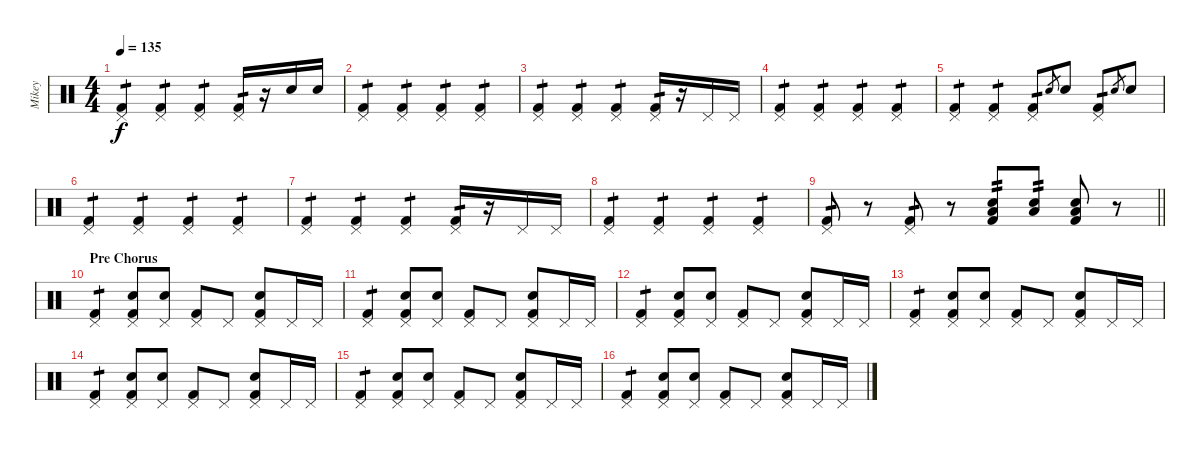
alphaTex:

\track ("Mikey" "Mikey") {instrument percussion}
\staff {score}
\articulation defaults
\ts (4 4)
\tempo 135
\clef neutral
\ks c
("Pedal Hi-Hat (hit)" "Kick (hit) 2").4{tp 1 dy f} ("Pedal Hi-Hat (hit)" "Kick (hit) 2").4{tp 1} ("Pedal Hi-Hat (hit)" "Kick (hit) 2").4{tp 1} ("Pedal Hi-Hat (hit)" "Kick (hit) 2").16{tp 1} r.16 "Snare (hit) 2".16 "Snare (hit) 2".16 |
("Pedal Hi-Hat (hit)" "Kick (hit) 2").4{tp 1} ("Pedal Hi-Hat (hit)" "Kick (hit) 2").4{tp 1} ("Pedal Hi-Hat (hit)" "Kick (hit) 2").4{tp 1} ("Pedal Hi-Hat (hit)" "Kick (hit) 2").4{tp 1} |
("Pedal Hi-Hat (hit)" "Kick (hit) 2").4{tp 1} ("Pedal Hi-Hat (hit)" "Kick (hit) 2").4{tp 1} ("Pedal Hi-Hat (hit)" "Kick (hit) 2").4{tp 1} ("Pedal Hi-Hat (hit)" "Kick (hit) 2").16{tp 1} r.16 "Pedal Hi-Hat (hit)".16 "Pedal Hi-Hat (hit)".16 |
("Pedal Hi-Hat (hit)" "Kick (hit) 2").4{tp 1} ("Pedal Hi-Hat (hit)" "Kick (hit) 2").4{tp 1} ("Pedal Hi-Hat (hit)" "Kick (hit) 2").4{tp 1} ("Pedal Hi-Hat (hit)" "Kick (hit) 2").4{tp 1} |
("Pedal Hi-Hat (hit)" "Kick (hit) 2").4{tp 1} ("Pedal Hi-Hat (hit)" "Kick (hit) 2").4{tp 1} ("Pedal Hi-Hat (hit)" "Kick (hit) 2").8{tp 1} "Snare (hit) 2".8{gr} "Snare (hit)".8 ("Pedal Hi-Hat (hit)" "Kick (hit) 2").8{tp 1} "Snare (hit) 2".8{gr} "Snare (hit) 2".8 |
("Pedal Hi-Hat (hit)" "Kick (hit) 2").4{tp 1} ("Pedal Hi-Hat (hit)" "Kick (hit) 2").4{tp 1} ("Pedal Hi-Hat (hit)" "Kick (hit) 2").4{tp 1} ("Pedal Hi-Hat (hit)" "Kick (hit) 2").4{tp 1} |
("Pedal Hi-Hat (hit)" "Kick (hit) 2").4{tp 1} ("Pedal Hi-Hat (hit)" "Kick (hit) 2").4{tp 1} ("Pedal Hi-Hat (hit)" "Kick (hit) 2").4{tp 1} ("Pedal Hi-Hat (hit)" "Kick (hit) 2").16{tp 1} r.16 "Pedal Hi-Hat (hit)".16 "Pedal Hi-Hat (hit)".16 |
("Pedal Hi-Hat (hit)" "Kick (hit) 2").4{tp 1} ("Pedal Hi-Hat (hit)" "Kick (hit) 2").4{tp 1} ("Pedal Hi-Hat (hit)" "Kick (hit) 2").4{tp 1} ("Pedal Hi-Hat (hit)" "Kick (hit) 2").4{tp 1} |
\barLineRight lightlight
("Pedal Hi-Hat (hit)" "Kick (hit) 2").8{tp 1} r.8 ("Pedal Hi-Hat (hit)" "Kick (hit) 2").8{tp 1} r.8 ("Low Floor Tom (hit)" "Snare (hit) 2" "Kick (hit) 2").8{tp 2} ("Low Floor Tom (hit)" "Snare (hit) 2").8{tp 2} ("Low Floor Tom (hit)" "Snare (hit) 2" "Kick (hit) 2").8 r.8 |
\section ("" "Pre Chorus")
("Pedal Hi-Hat (hit)" "Kick (hit) 2").4{tp 1} ("Pedal Hi-Hat (hit)" "Snare (hit) 2" "Kick (hit) 2").8 ("Pedal Hi-Hat (hit)" "Snare (hit) 2").8 ("Pedal Hi-Hat (hit)" "Kick (hit) 2").8 "Pedal Hi-Hat (hit)".8 ("Pedal Hi-Hat (hit)" "Snare (hit) 2" "Kick (hit) 2").8 "Pedal Hi-Hat (hit)".16 "Pedal Hi-Hat (hit)".16 |
("Pedal Hi-Hat (hit)" "Kick (hit) 2").4{tp 1} ("Pedal Hi-Hat (hit)" "Snare (hit) 2" "Kick (hit) 2").8 ("Pedal Hi-Hat (hit)" "Snare (hit) 2").8 ("Pedal Hi-Hat (hit)" "Kick (hit) 2").8 "Pedal Hi-Hat (hit)".8 ("Pedal Hi-Hat (hit)" "Snare (hit) 2" "Kick (hit) 2").8 "Pedal Hi-Hat (hit)".16 "Pedal Hi-Hat (hit)".16 |
("Pedal Hi-Hat (hit)" "Kick (hit) 2").4{tp 1} ("Pedal Hi-Hat (hit)" "Snare (hit) 2" "Kick (hit) 2").8 ("Pedal Hi-Hat (hit)" "Snare (hit) 2").8 ("Pedal Hi-Hat (hit)" "Kick (hit) 2").8 "Pedal Hi-Hat (hit)".8 ("Pedal Hi-Hat (hit)" "Snare (hit) 2" "Kick (hit) 2").8 "Pedal Hi-Hat (hit)".16 "Pedal Hi-Hat (hit)".16 |
("Pedal Hi-Hat (hit)" "Kick (hit) 2").4{tp 1} ("Pedal Hi-Hat (hit)" "Snare (hit) 2" "Kick (hit) 2").8 ("Pedal Hi-Hat (hit)" "Snare (hit) 2").8 ("Pedal Hi-Hat (hit)" "Kick (hit) 2").8 "Pedal Hi-Hat (hit)".8 ("Pedal Hi-Hat (hit)" "Snare (hit) 2" "Kick (hit) 2").8 "Pedal Hi-Hat (hit)".16 "Pedal Hi-Hat (hit)".16 |
("Pedal Hi-Hat (hit)" "Kick (hit) 2").4{tp 1} ("Pedal Hi-Hat (hit)" "Snare (hit) 2" "Kick (hit) 2").8 ("Pedal Hi-Hat (hit)" "Snare (hit) 2").8 ("Pedal Hi-Hat (hit)" "Kick (hit) 2").8 "Pedal Hi-Hat (hit)".8 ("Pedal Hi-Hat (hit)" "Snare (hit) 2" "Kick (hit) 2").8 "Pedal Hi-Hat (hit)".16 "Pedal Hi-Hat (hit)".16 |
("Pedal Hi-Hat (hit)" "Kick (hit) 2").4{tp 1} ("Pedal Hi-Hat (hit)" "Snare (hit) 2" "Kick (hit) 2").8 ("Pedal Hi-Hat (hit)" "Snare (hit) 2").8 ("Pedal Hi-Hat (hit)" "Kick (hit) 2").8 "Pedal Hi-Hat (hit)".8 ("Pedal Hi-Hat (hit)" "Snare (hit) 2" "Kick (hit) 2").8 "Pedal Hi-Hat (hit)".16 "Pedal Hi-Hat (hit)".16 |
("Pedal Hi-Hat (hit)" "Kick (hit) 2").4{tp 1} ("Pedal Hi-Hat (hit)" "Snare (hit) 2" "Kick (hit) 2").8 ("Pedal Hi-Hat (hit)" "Snare (hit) 2").8 ("Pedal Hi-Hat (hit)" "Kick (hit) 2").8 "Pedal Hi-Hat (hit)".8 ("Pedal Hi-Hat (hit)" "Snare (hit) 2" "Kick (hit) 2").8 "Pedal Hi-Hat (hit)".16 "Pedal Hi-Hat (hit)".16
